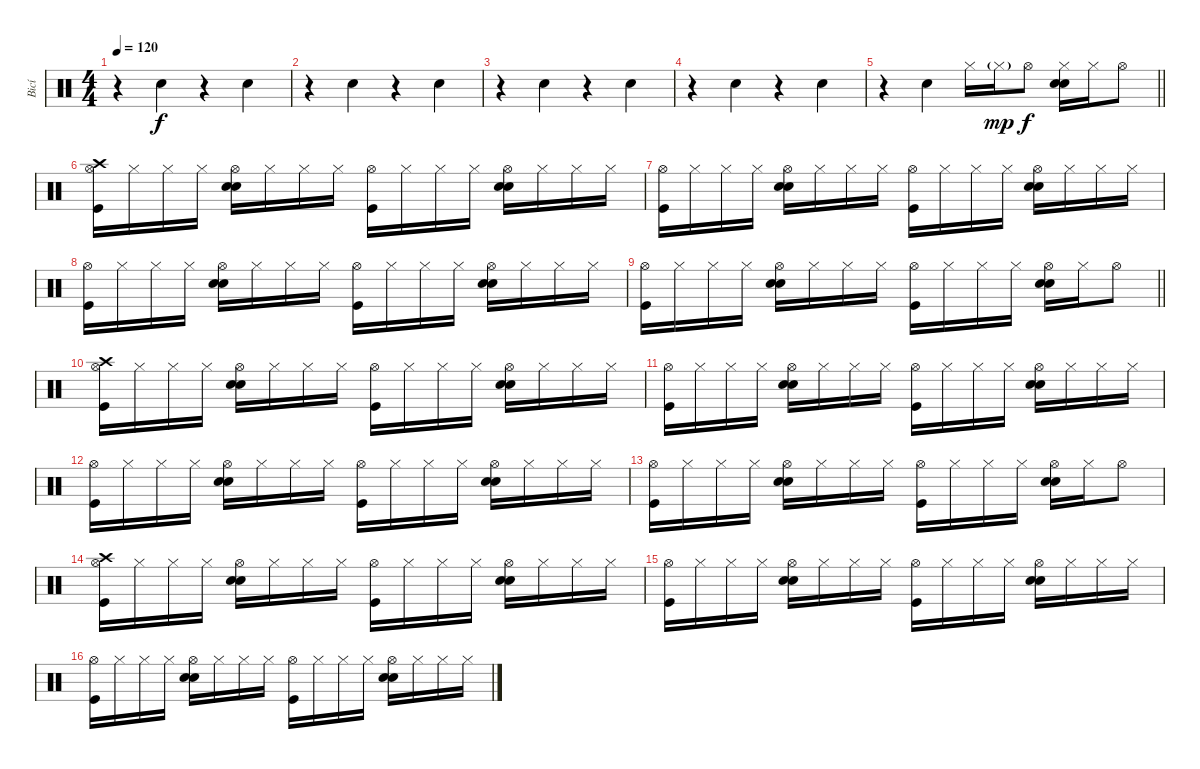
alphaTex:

\track ("Bicí" "Bicí") {instrument percussion}
\staff {score}
\articulation defaults
\ts (4 4)
\tempo 120
\clef neutral
\ks c
r.4{dy f} "Hand Clap (hit)".4 r.4 "Hand Clap (hit)".4 |
r.4 "Hand Clap (hit)".4 r.4 "Hand Clap (hit)".4 |
r.4 "Hand Clap (hit)".4 r.4 "Hand Clap (hit)".4 |
r.4 "Hand Clap (hit)".4 r.4 "Hand Clap (hit)".4 |
\barLineRight lightlight
r.4 "Hand Clap (hit)".4 "Hi-Hat (closed)".16 "Hi-Hat (closed)"{g}.16{dy mp} "Hi-Hat (open)".8{dy f} ("Hi-Hat (closed)" "Hand Clap (hit)" "Electric Snare (hit)").16 "Hi-Hat (closed)".16 "Hi-Hat (open)".8 |
\section ("" "")
("Crash high (hit)" "Hi-Hat (open)" "Kick (hit)").16 "Hi-Hat (closed)".16 "Hi-Hat (closed)".16 "Hi-Hat (closed)".16 ("Hi-Hat (open)" "Hand Clap (hit)" "Electric Snare (hit)").16 "Hi-Hat (closed)".16 "Hi-Hat (closed)".16 "Hi-Hat (closed)".16 ("Hi-Hat (open)" "Kick (hit)").16 "Hi-Hat (closed)".16 "Hi-Hat (closed)".16 "Hi-Hat (closed)".16 ("Hi-Hat (open)" "Hand Clap (hit)" "Electric Snare (hit)").16 "Hi-Hat (closed)".16 "Hi-Hat (closed)".16 "Hi-Hat (closed)".16 |
("Hi-Hat (open)" "Kick (hit)").16 "Hi-Hat (closed)".16 "Hi-Hat (closed)".16 "Hi-Hat (closed)".16 ("Hi-Hat (open)" "Hand Clap (hit)" "Electric Snare (hit)").16 "Hi-Hat (closed)".16 "Hi-Hat (closed)".16 "Hi-Hat (closed)".16 ("Hi-Hat (open)" "Kick (hit)").16 "Hi-Hat (closed)".16 "Hi-Hat (closed)".16 "Hi-Hat (closed)".16 ("Hi-Hat (open)" "Hand Clap (hit)" "Electric Snare (hit)").16 "Hi-Hat (closed)".16 "Hi-Hat (closed)".16 "Hi-Hat (closed)".16 |
("Hi-Hat (open)" "Kick (hit)").16 "Hi-Hat (closed)".16 "Hi-Hat (closed)".16 "Hi-Hat (closed)".16 ("Hi-Hat (open)" "Hand Clap (hit)" "Electric Snare (hit)").16 "Hi-Hat (closed)".16 "Hi-Hat (closed)".16 "Hi-Hat (closed)".16 ("Hi-Hat (open)" "Kick (hit)").16 "Hi-Hat (closed)".16 "Hi-Hat (closed)".16 "Hi-Hat (closed)".16 ("Hi-Hat (open)" "Hand Clap (hit)" "Electric Snare (hit)").16 "Hi-Hat (closed)".16 "Hi-Hat (closed)".16 "Hi-Hat (closed)".16 |
\barLineRight lightlight
("Hi-Hat (open)" "Kick (hit)").16 "Hi-Hat (closed)".16 "Hi-Hat (closed)".16 "Hi-Hat (closed)".16 ("Hi-Hat (open)" "Hand Clap (hit)" "Electric Snare (hit)").16 "Hi-Hat (closed)".16 "Hi-Hat (closed)".16 "Hi-Hat (closed)".16 ("Hi-Hat (open)" "Kick (hit)").16 "Hi-Hat (closed)".16 "Hi-Hat (closed)".16 "Hi-Hat (closed)".16 ("Hi-Hat (open)" "Hand Clap (hit)" "Electric Snare (hit)").16 "Hi-Hat (closed)".16 "Hi-Hat (open)".8 |
\section ("" "")
("Crash high (hit)" "Hi-Hat (open)" "Kick (hit)").16 "Hi-Hat (closed)".16 "Hi-Hat (closed)".16 "Hi-Hat (closed)".16 ("Hi-Hat (open)" "Hand Clap (hit)" "Electric Snare (hit)").16 "Hi-Hat (closed)".16 "Hi-Hat (closed)".16 "Hi-Hat (closed)".16 ("Hi-Hat (open)" "Kick (hit)").16 "Hi-Hat (closed)".16 "Hi-Hat (closed)".16 "Hi-Hat (closed)".16 ("Hi-Hat (open)" "Hand Clap (hit)" "Electric Snare (hit)").16 "Hi-Hat (closed)".16 "Hi-Hat (closed)".16 "Hi-Hat (closed)".16 |
("Hi-Hat (open)" "Kick (hit)").16 "Hi-Hat (closed)".16 "Hi-Hat (closed)".16 "Hi-Hat (closed)".16 ("Hi-Hat (open)" "Hand Clap (hit)" "Electric Snare (hit)").16 "Hi-Hat (closed)".16 "Hi-Hat (closed)".16 "Hi-Hat (closed)".16 ("Hi-Hat (open)" "Kick (hit)").16 "Hi-Hat (closed)".16 "Hi-Hat (closed)".16 "Hi-Hat (closed)".16 ("Hi-Hat (open)" "Hand Clap (hit)" "Electric Snare (hit)").16 "Hi-Hat (closed)".16 "Hi-Hat (closed)".16 "Hi-Hat (closed)".16 |
("Hi-Hat (open)" "Kick (hit)").16 "Hi-Hat (closed)".16 "Hi-Hat (closed)".16 "Hi-Hat (closed)".16 ("Hi-Hat (open)" "Hand Clap (hit)" "Electric Snare (hit)").16 "Hi-Hat (closed)".16 "Hi-Hat (closed)".16 "Hi-Hat (closed)".16 ("Hi-Hat (open)" "Kick (hit)").16 "Hi-Hat (closed)".16 "Hi-Hat (closed)".16 "Hi-Hat (closed)".16 ("Hi-Hat (open)" "Hand Clap (hit)" "Electric Snare (hit)").16 "Hi-Hat (closed)".16 "Hi-Hat (closed)".16 "Hi-Hat (closed)".16 |
("Hi-Hat (open)" "Kick (hit)").16 "Hi-Hat (closed)".16 "Hi-Hat (closed)".16 "Hi-Hat (closed)".16 ("Hi-Hat (open)" "Hand Clap (hit)" "Electric Snare (hit)").16 "Hi-Hat (closed)".16 "Hi-Hat (closed)".16 "Hi-Hat (closed)".16 ("Hi-Hat (open)" "Kick (hit)").16 "Hi-Hat (closed)".16 "Hi-Hat (closed)".16 "Hi-Hat (closed)".16 ("Hi-Hat (open)" "Hand Clap (hit)" "Electric Snare (hit)").16 "Hi-Hat (closed)".16 "Hi-Hat (open)".8 |
("Crash high (hit)" "Hi-Hat (open)" "Kick (hit)").16 "Hi-Hat (closed)".16 "Hi-Hat (closed)".16 "Hi-Hat (closed)".16 ("Hi-Hat (open)" "Hand Clap (hit)" "Electric Snare (hit)").16 "Hi-Hat (closed)".16 "Hi-Hat (closed)".16 "Hi-Hat (closed)".16 ("Hi-Hat (open)" "Kick (hit)").16 "Hi-Hat (closed)".16 "Hi-Hat (closed)".16 "Hi-Hat (closed)".16 ("Hi-Hat (open)" "Hand Clap (hit)" "Electric Snare (hit)").16 "Hi-Hat (closed)".16 "Hi-Hat (closed)".16 "Hi-Hat (closed)".16 |
("Hi-Hat (open)" "Kick (hit)").16 "Hi-Hat (closed)".16 "Hi-Hat (closed)".16 "Hi-Hat (closed)".16 ("Hi-Hat (open)" "Hand Clap (hit)" "Electric Snare (hit)").16 "Hi-Hat (closed)".16 "Hi-Hat (closed)".16 "Hi-Hat (closed)".16 ("Hi-Hat (open)" "Kick (hit)").16 "Hi-Hat (closed)".16 "Hi-Hat (closed)".16 "Hi-Hat (closed)".16 ("Hi-Hat (open)" "Hand Clap (hit)" "Electric Snare (hit)").16 "Hi-Hat (closed)".16 "Hi-Hat (closed)".16 "Hi-Hat (closed)".16 |
("Hi-Hat (open)" "Kick (hit)").16 "Hi-Hat (closed)".16 "Hi-Hat (closed)".16 "Hi-Hat (closed)".16 ("Hi-Hat (open)" "Hand Clap (hit)" "Electric Snare (hit)").16 "Hi-Hat (closed)".16 "Hi-Hat (closed)".16 "Hi-Hat (closed)".16 ("Hi-Hat (open)" "Kick (hit)").16 "Hi-Hat (closed)".16 "Hi-Hat (closed)".16 "Hi-Hat (closed)".16 ("Hi-Hat (open)" "Hand Clap (hit)" "Electric Snare (hit)").16 "Hi-Hat (closed)".16 "Hi-Hat (closed)".16 "Hi-Hat (closed)".16
